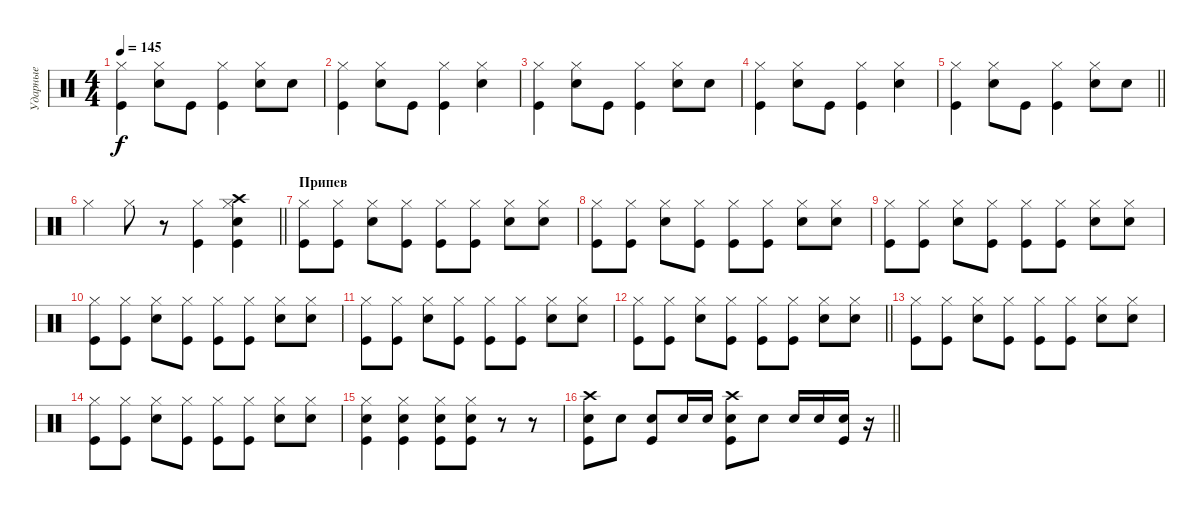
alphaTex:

\track ("Ударные" "Ударные") {instrument percussion bank 125}
\staff {score}
\articulation defaults
\ts (4 4)
\tempo 145
\clef neutral
\ks c
("Hi-Hat (closed)" "Kick (hit)").4{dy f} ("Hi-Hat (closed)" "Snare (hit) 2").8 "Kick (hit)".8 ("Hi-Hat (closed)" "Kick (hit)").4 ("Hi-Hat (closed)" "Snare (hit) 2").8 "Snare (hit) 2".8 |
("Hi-Hat (closed)" "Kick (hit)").4 ("Hi-Hat (closed)" "Snare (hit) 2").8 "Kick (hit)".8 ("Hi-Hat (closed)" "Kick (hit)").4 ("Hi-Hat (closed)" "Snare (hit) 2").4 |
("Hi-Hat (closed)" "Kick (hit)").4 ("Hi-Hat (closed)" "Snare (hit) 2").8 "Kick (hit)".8 ("Hi-Hat (closed)" "Kick (hit)").4 ("Hi-Hat (closed)" "Snare (hit) 2").8 "Snare (hit) 2".8 |
("Hi-Hat (closed)" "Kick (hit)").4 ("Hi-Hat (closed)" "Snare (hit) 2").8 "Kick (hit)".8 ("Hi-Hat (closed)" "Kick (hit)").4 ("Hi-Hat (closed)" "Snare (hit) 2").4 |
\barLineRight lightlight
("Hi-Hat (closed)" "Kick (hit)").4 ("Hi-Hat (closed)" "Snare (hit) 2").8 "Kick (hit)".8 ("Hi-Hat (closed)" "Kick (hit)").4 ("Hi-Hat (closed)" "Snare (hit) 2").8 "Snare (hit) 2".8 |
\barLineRight lightlight "Hi-Hat (closed)".4 "Hi-Hat (closed)".8
r.8 ("Hi-Hat (closed)" "Kick (hit)").4 ("Hi-Hat (closed)" "Crash high (hit)" "Snare (hit) 2" "Kick (hit)").4 |
\section ("" "Припев")
("Hi-Hat (closed)" "Kick (hit)").8 ("Hi-Hat (closed)" "Kick (hit)").8 ("Hi-Hat (closed)" "Snare (hit) 2").8 ("Hi-Hat (closed)" "Kick (hit)").8 ("Hi-Hat (closed)" "Kick (hit)").8 ("Hi-Hat (closed)" "Kick (hit)").8 ("Hi-Hat (closed)" "Snare (hit) 2").8 ("Hi-Hat (closed)" "Snare (hit) 2").8 |
("Hi-Hat (closed)" "Kick (hit)").8 ("Hi-Hat (closed)" "Kick (hit)").8 ("Hi-Hat (closed)" "Snare (hit) 2").8 ("Hi-Hat (closed)" "Kick (hit)").8 ("Hi-Hat (closed)" "Kick (hit)").8 ("Hi-Hat (closed)" "Kick (hit)").8 ("Hi-Hat (closed)" "Snare (hit) 2").8 ("Hi-Hat (closed)" "Snare (hit) 2").8 |
("Hi-Hat (closed)" "Kick (hit)").8 ("Hi-Hat (closed)" "Kick (hit)").8 ("Hi-Hat (closed)" "Snare (hit) 2").8 ("Hi-Hat (closed)" "Kick (hit)").8 ("Hi-Hat (closed)" "Kick (hit)").8 ("Hi-Hat (closed)" "Kick (hit)").8 ("Hi-Hat (closed)" "Snare (hit) 2").8 ("Hi-Hat (closed)" "Snare (hit) 2").8 |
("Hi-Hat (closed)" "Kick (hit)").8 ("Hi-Hat (closed)" "Kick (hit)").8 ("Hi-Hat (closed)" "Snare (hit) 2").8 ("Hi-Hat (closed)" "Kick (hit)").8 ("Hi-Hat (closed)" "Kick (hit)").8 ("Hi-Hat (closed)" "Kick (hit)").8 ("Hi-Hat (closed)" "Snare (hit) 2").8 ("Hi-Hat (closed)" "Snare (hit) 2").8 |
("Hi-Hat (closed)" "Kick (hit)").8 ("Hi-Hat (closed)" "Kick (hit)").8 ("Hi-Hat (closed)" "Snare (hit) 2").8 ("Hi-Hat (closed)" "Kick (hit)").8 ("Hi-Hat (closed)" "Kick (hit)").8 ("Hi-Hat (closed)" "Kick (hit)").8 ("Hi-Hat (closed)" "Snare (hit) 2").8 ("Hi-Hat (closed)" "Snare (hit) 2").8 |
\barLineRight lightlight
("Hi-Hat (closed)" "Kick (hit)").8 ("Hi-Hat (closed)" "Kick (hit)").8 ("Hi-Hat (closed)" "Snare (hit) 2").8 ("Hi-Hat (closed)" "Kick (hit)").8 ("Hi-Hat (closed)" "Kick (hit)").8 ("Hi-Hat (closed)" "Kick (hit)").8 ("Hi-Hat (closed)" "Snare (hit) 2").8 ("Hi-Hat (closed)" "Snare (hit) 2").8 |
("Hi-Hat (closed)" "Kick (hit)").8 ("Hi-Hat (closed)" "Kick (hit)").8 ("Hi-Hat (closed)" "Snare (hit) 2").8 ("Hi-Hat (closed)" "Kick (hit)").8 ("Hi-Hat (closed)" "Kick (hit)").8 ("Hi-Hat (closed)" "Kick (hit)").8 ("Hi-Hat (closed)" "Snare (hit) 2").8 ("Hi-Hat (closed)" "Snare (hit) 2").8 |
("Hi-Hat (closed)" "Kick (hit)").8 ("Hi-Hat (closed)" "Kick (hit)").8 ("Hi-Hat (closed)" "Snare (hit) 2").8 ("Hi-Hat (closed)" "Kick (hit)").8 ("Hi-Hat (closed)" "Kick (hit)").8 ("Hi-Hat (closed)" "Kick (hit)").8 ("Hi-Hat (closed)" "Snare (hit) 2").8 ("Hi-Hat (closed)" "Snare (hit) 2").8 |
("Hi-Hat (closed)" "Snare (hit) 2" "Kick (hit)").4 ("Hi-Hat (closed)" "Snare (hit) 2" "Kick (hit)").4 ("Hi-Hat (closed)" "Snare (hit) 2" "Kick (hit)").8 ("Hi-Hat (closed)" "Snare (hit) 2" "Kick (hit)").8 r.8 r.8 |
\barLineRight lightlight
("Crash high (hit)" "Snare (hit) 2" "Kick (hit)").8 "Snare (hit) 2".8 ("Snare (hit) 2" "Kick (hit)").8 "Snare (hit) 2".16 "Snare (hit) 2".16 ("Crash high (hit)" "Snare (hit) 2" "Kick (hit)").8 "Snare (hit) 2".8 "Snare (hit) 2".16 "Snare (hit) 2".16 ("Snare (hit) 2" "Kick (hit)").16 r.16
